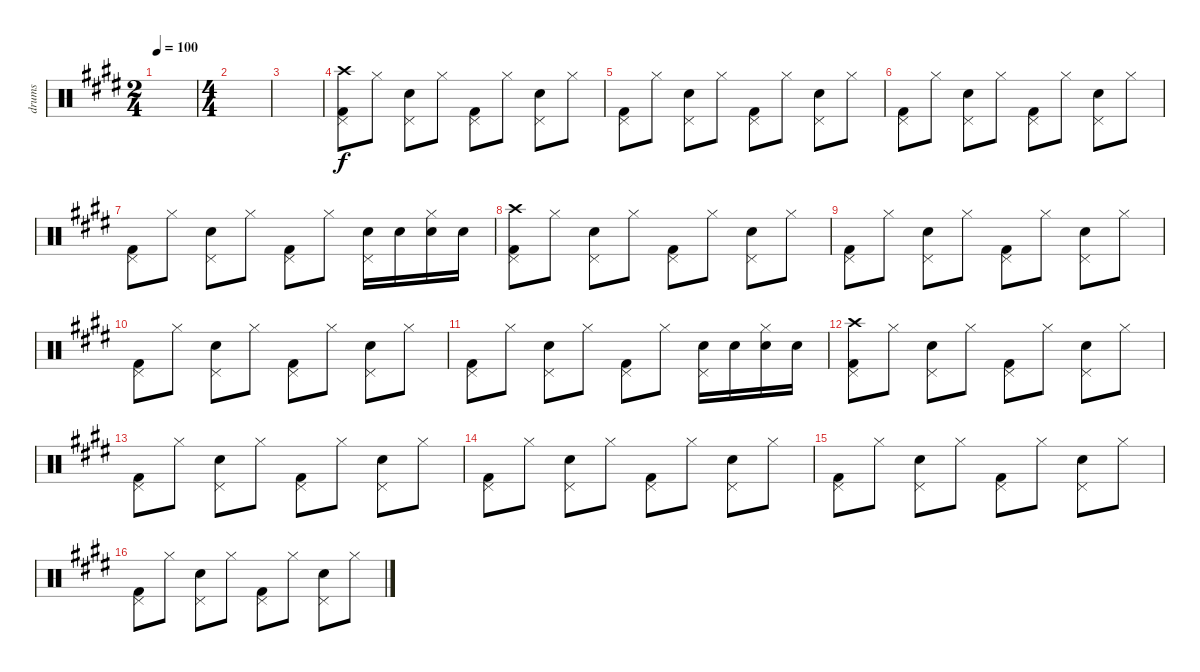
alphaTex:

\track ("drums" "drums") {instrument percussion}
\staff {score}
\articulation defaults
\ts (2 4)
\tempo 100
\clef neutral
\ks e
|
\ts (4 4)
|
|
("Crash high (hit)" "Pedal Hi-Hat (hit)" "Kick (hit) 2").8 "Hi-Hat (closed)".8 ("Snare (hit) 2" "Pedal Hi-Hat (hit)").8 "Hi-Hat (closed)".8 ("Pedal Hi-Hat (hit)" "Kick (hit) 2").8 "Hi-Hat (closed)".8 ("Snare (hit) 2" "Pedal Hi-Hat (hit)").8 "Hi-Hat (closed)".8 |
("Pedal Hi-Hat (hit)" "Kick (hit) 2").8 "Hi-Hat (closed)".8 ("Snare (hit) 2" "Pedal Hi-Hat (hit)").8 "Hi-Hat (closed)".8 ("Pedal Hi-Hat (hit)" "Kick (hit) 2").8 "Hi-Hat (closed)".8 ("Snare (hit) 2" "Pedal Hi-Hat (hit)").8 "Hi-Hat (closed)".8 |
("Pedal Hi-Hat (hit)" "Kick (hit) 2").8 "Hi-Hat (closed)".8 ("Snare (hit) 2" "Pedal Hi-Hat (hit)").8 "Hi-Hat (closed)".8 ("Pedal Hi-Hat (hit)" "Kick (hit) 2").8 "Hi-Hat (closed)".8 ("Snare (hit) 2" "Pedal Hi-Hat (hit)").8 "Hi-Hat (closed)".8 |
("Pedal Hi-Hat (hit)" "Kick (hit) 2").8 "Hi-Hat (closed)".8 ("Snare (hit) 2" "Pedal Hi-Hat (hit)").8 "Hi-Hat (closed)".8 ("Pedal Hi-Hat (hit)" "Kick (hit) 2").8 "Hi-Hat (closed)".8 ("Snare (hit) 2" "Pedal Hi-Hat (hit)").16 "Snare (hit) 2".16 ("Snare (hit) 2" "Hi-Hat (closed)").16 "Snare (hit) 2".16 |
("Crash high (hit)" "Pedal Hi-Hat (hit)" "Kick (hit) 2").8 "Hi-Hat (closed)".8 ("Snare (hit) 2" "Pedal Hi-Hat (hit)").8 "Hi-Hat (closed)".8 ("Pedal Hi-Hat (hit)" "Kick (hit) 2").8 "Hi-Hat (closed)".8 ("Snare (hit) 2" "Pedal Hi-Hat (hit)").8 "Hi-Hat (closed)".8 |
("Pedal Hi-Hat (hit)" "Kick (hit) 2").8 "Hi-Hat (closed)".8 ("Snare (hit) 2" "Pedal Hi-Hat (hit)").8 "Hi-Hat (closed)".8 ("Pedal Hi-Hat (hit)" "Kick (hit) 2").8 "Hi-Hat (closed)".8 ("Snare (hit) 2" "Pedal Hi-Hat (hit)").8 "Hi-Hat (closed)".8 |
("Pedal Hi-Hat (hit)" "Kick (hit) 2").8 "Hi-Hat (closed)".8 ("Snare (hit) 2" "Pedal Hi-Hat (hit)").8 "Hi-Hat (closed)".8 ("Pedal Hi-Hat (hit)" "Kick (hit) 2").8 "Hi-Hat (closed)".8 ("Snare (hit) 2" "Pedal Hi-Hat (hit)").8 "Hi-Hat (closed)".8 |
("Pedal Hi-Hat (hit)" "Kick (hit) 2").8 "Hi-Hat (closed)".8 ("Snare (hit) 2" "Pedal Hi-Hat (hit)").8 "Hi-Hat (closed)".8 ("Pedal Hi-Hat (hit)" "Kick (hit) 2").8 "Hi-Hat (closed)".8 ("Snare (hit) 2" "Pedal Hi-Hat (hit)").16 "Snare (hit) 2".16 ("Snare (hit) 2" "Hi-Hat (closed)").16 "Snare (hit) 2".16 |
("Crash high (hit)" "Pedal Hi-Hat (hit)" "Kick (hit) 2").8 "Hi-Hat (closed)".8 ("Snare (hit) 2" "Pedal Hi-Hat (hit)").8 "Hi-Hat (closed)".8 ("Pedal Hi-Hat (hit)" "Kick (hit) 2").8 "Hi-Hat (closed)".8 ("Snare (hit) 2" "Pedal Hi-Hat (hit)").8 "Hi-Hat (closed)".8 |
("Pedal Hi-Hat (hit)" "Kick (hit) 2").8 "Hi-Hat (closed)".8 ("Snare (hit) 2" "Pedal Hi-Hat (hit)").8 "Hi-Hat (closed)".8 ("Pedal Hi-Hat (hit)" "Kick (hit) 2").8 "Hi-Hat (closed)".8 ("Snare (hit) 2" "Pedal Hi-Hat (hit)").8 "Hi-Hat (closed)".8 |
("Pedal Hi-Hat (hit)" "Kick (hit) 2").8 "Hi-Hat (closed)".8 ("Snare (hit) 2" "Pedal Hi-Hat (hit)").8 "Hi-Hat (closed)".8 ("Pedal Hi-Hat (hit)" "Kick (hit) 2").8 "Hi-Hat (closed)".8 ("Snare (hit) 2" "Pedal Hi-Hat (hit)").8 "Hi-Hat (closed)".8 |
("Pedal Hi-Hat (hit)" "Kick (hit) 2").8 "Hi-Hat (closed)".8 ("Snare (hit) 2" "Pedal Hi-Hat (hit)").8 "Hi-Hat (closed)".8 ("Pedal Hi-Hat (hit)" "Kick (hit) 2").8 "Hi-Hat (closed)".8 ("Snare (hit) 2" "Pedal Hi-Hat (hit)").8 "Hi-Hat (closed)".8 |
("Pedal Hi-Hat (hit)" "Kick (hit) 2").8 "Hi-Hat (closed)".8 ("Snare (hit) 2" "Pedal Hi-Hat (hit)").8 "Hi-Hat (closed)".8 ("Pedal Hi-Hat (hit)" "Kick (hit) 2").8 "Hi-Hat (closed)".8 ("Snare (hit) 2" "Pedal Hi-Hat (hit)").8 "Hi-Hat (closed)".8
